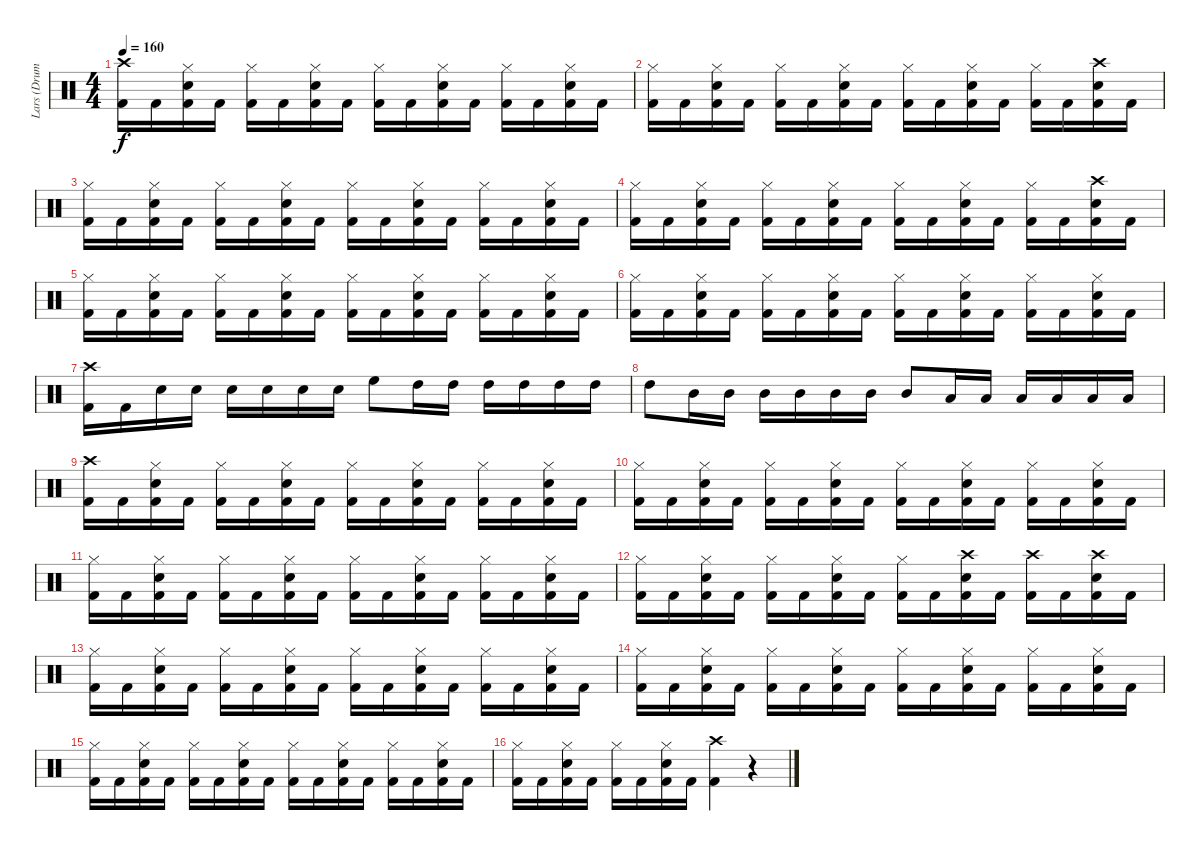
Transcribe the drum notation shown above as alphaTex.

\track ("Lars (Drums)" "Lars (Drum") {instrument percussion}
\staff {score}
\articulation defaults
\ts (4 4)
\tempo 160
\clef neutral
\ks c
("Crash high (hit)" "Kick (hit) 2").16{dy f} "Kick (hit) 2".16 ("Hi-Hat (closed)" "Kick (hit) 2" "Snare (hit) 2").16 "Kick (hit) 2".16 ("Hi-Hat (closed)" "Kick (hit) 2").16 "Kick (hit) 2".16 ("Hi-Hat (closed)" "Kick (hit) 2" "Snare (hit) 2").16 "Kick (hit) 2".16 ("Hi-Hat (closed)" "Kick (hit) 2").16 "Kick (hit) 2".16 ("Hi-Hat (closed)" "Kick (hit) 2" "Snare (hit) 2").16 "Kick (hit) 2".16 ("Hi-Hat (closed)" "Kick (hit) 2").16 "Kick (hit) 2".16 ("Hi-Hat (closed)" "Kick (hit) 2" "Snare (hit) 2").16 "Kick (hit) 2".16 |
("Hi-Hat (closed)" "Kick (hit) 2").16 "Kick (hit) 2".16 ("Hi-Hat (closed)" "Kick (hit) 2" "Snare (hit) 2").16 "Kick (hit) 2".16 ("Hi-Hat (closed)" "Kick (hit) 2").16 "Kick (hit) 2".16 ("Hi-Hat (closed)" "Kick (hit) 2" "Snare (hit) 2").16 "Kick (hit) 2".16 ("Hi-Hat (closed)" "Kick (hit) 2").16 "Kick (hit) 2".16 ("Hi-Hat (closed)" "Kick (hit) 2" "Snare (hit) 2").16 "Kick (hit) 2".16 ("Hi-Hat (closed)" "Kick (hit) 2").16 "Kick (hit) 2".16 ("Crash high (hit)" "Kick (hit) 2" "Snare (hit) 2").16 "Kick (hit) 2".16 |
("Hi-Hat (closed)" "Kick (hit) 2").16 "Kick (hit) 2".16 ("Hi-Hat (closed)" "Kick (hit) 2" "Snare (hit) 2").16 "Kick (hit) 2".16 ("Hi-Hat (closed)" "Kick (hit) 2").16 "Kick (hit) 2".16 ("Hi-Hat (closed)" "Kick (hit) 2" "Snare (hit) 2").16 "Kick (hit) 2".16 ("Hi-Hat (closed)" "Kick (hit) 2").16 "Kick (hit) 2".16 ("Hi-Hat (closed)" "Kick (hit) 2" "Snare (hit) 2").16 "Kick (hit) 2".16 ("Hi-Hat (closed)" "Kick (hit) 2").16 "Kick (hit) 2".16 ("Hi-Hat (closed)" "Kick (hit) 2" "Snare (hit) 2").16 "Kick (hit) 2".16 |
("Hi-Hat (closed)" "Kick (hit) 2").16 "Kick (hit) 2".16 ("Hi-Hat (closed)" "Kick (hit) 2" "Snare (hit) 2").16 "Kick (hit) 2".16 ("Hi-Hat (closed)" "Kick (hit) 2").16 "Kick (hit) 2".16 ("Hi-Hat (closed)" "Kick (hit) 2" "Snare (hit) 2").16 "Kick (hit) 2".16 ("Hi-Hat (closed)" "Kick (hit) 2").16 "Kick (hit) 2".16 ("Hi-Hat (closed)" "Kick (hit) 2" "Snare (hit) 2").16 "Kick (hit) 2".16 ("Hi-Hat (closed)" "Kick (hit) 2").16 "Kick (hit) 2".16 ("Crash high (hit)" "Kick (hit) 2" "Snare (hit) 2").16 "Kick (hit) 2".16 |
("Hi-Hat (closed)" "Kick (hit) 2").16 "Kick (hit) 2".16 ("Hi-Hat (closed)" "Kick (hit) 2" "Snare (hit) 2").16 "Kick (hit) 2".16 ("Hi-Hat (closed)" "Kick (hit) 2").16 "Kick (hit) 2".16 ("Hi-Hat (closed)" "Kick (hit) 2" "Snare (hit) 2").16 "Kick (hit) 2".16 ("Hi-Hat (closed)" "Kick (hit) 2").16 "Kick (hit) 2".16 ("Hi-Hat (closed)" "Kick (hit) 2" "Snare (hit) 2").16 "Kick (hit) 2".16 ("Hi-Hat (closed)" "Kick (hit) 2").16 "Kick (hit) 2".16 ("Hi-Hat (closed)" "Kick (hit) 2" "Snare (hit) 2").16 "Kick (hit) 2".16 |
("Hi-Hat (closed)" "Kick (hit) 2").16 "Kick (hit) 2".16 ("Hi-Hat (closed)" "Kick (hit) 2" "Snare (hit) 2").16 "Kick (hit) 2".16 ("Hi-Hat (closed)" "Kick (hit) 2").16 "Kick (hit) 2".16 ("Hi-Hat (closed)" "Kick (hit) 2" "Snare (hit) 2").16 "Kick (hit) 2".16 ("Hi-Hat (closed)" "Kick (hit) 2").16 "Kick (hit) 2".16 ("Hi-Hat (closed)" "Kick (hit) 2" "Snare (hit) 2").16 "Kick (hit) 2".16 ("Hi-Hat (closed)" "Kick (hit) 2").16 "Kick (hit) 2".16 ("Hi-Hat (closed)" "Kick (hit) 2" "Snare (hit) 2").16 "Kick (hit) 2".16 |
("Crash high (hit)" "Kick (hit) 2").16 "Kick (hit) 2".16 "Snare (hit) 2".16 "Snare (hit) 2".16 "Snare (hit) 2".16 "Snare (hit) 2".16 "Snare (hit) 2".16 "Snare (hit) 2".16 "High Floor Tom (hit)".8 "High Tom (hit)".16 "High Tom (hit)".16 "High Tom (hit)".16 "High Tom (hit)".16 "High Tom (hit)".16 "High Tom (hit)".16 |
"High Tom (hit)".8 "Mid Tom (hit)".16 "Mid Tom (hit)".16 "Mid Tom (hit)".16 "Mid Tom (hit)".16 "Mid Tom (hit)".16 "Mid Tom (hit)".16 "Mid Tom (hit)".8 "Low Tom (hit)".16 "Low Tom (hit)".16 "Low Tom (hit)".16 "Low Tom (hit)".16 "Low Tom (hit)".16 "Low Tom (hit)".16 |
("Crash high (hit)" "Kick (hit) 2").16 "Kick (hit) 2".16 ("Hi-Hat (closed)" "Kick (hit) 2" "Snare (hit) 2").16 "Kick (hit) 2".16 ("Hi-Hat (closed)" "Kick (hit) 2").16 "Kick (hit) 2".16 ("Hi-Hat (closed)" "Kick (hit) 2" "Snare (hit) 2").16 "Kick (hit) 2".16 ("Hi-Hat (closed)" "Kick (hit) 2").16 "Kick (hit) 2".16 ("Hi-Hat (closed)" "Kick (hit) 2" "Snare (hit) 2").16 "Kick (hit) 2".16 ("Hi-Hat (closed)" "Kick (hit) 2").16 "Kick (hit) 2".16 ("Hi-Hat (closed)" "Kick (hit) 2" "Snare (hit) 2").16 "Kick (hit) 2".16 |
("Hi-Hat (closed)" "Kick (hit) 2").16 "Kick (hit) 2".16 ("Hi-Hat (closed)" "Kick (hit) 2" "Snare (hit) 2").16 "Kick (hit) 2".16 ("Hi-Hat (closed)" "Kick (hit) 2").16 "Kick (hit) 2".16 ("Hi-Hat (closed)" "Kick (hit) 2" "Snare (hit) 2").16 "Kick (hit) 2".16 ("Hi-Hat (closed)" "Kick (hit) 2").16 "Kick (hit) 2".16 ("Hi-Hat (closed)" "Kick (hit) 2" "Snare (hit) 2").16 "Kick (hit) 2".16 ("Hi-Hat (closed)" "Kick (hit) 2").16 "Kick (hit) 2".16 ("Hi-Hat (closed)" "Kick (hit) 2" "Snare (hit) 2").16 "Kick (hit) 2".16 |
("Hi-Hat (closed)" "Kick (hit) 2").16 "Kick (hit) 2".16 ("Hi-Hat (closed)" "Kick (hit) 2" "Snare (hit) 2").16 "Kick (hit) 2".16 ("Hi-Hat (closed)" "Kick (hit) 2").16 "Kick (hit) 2".16 ("Hi-Hat (closed)" "Kick (hit) 2" "Snare (hit) 2").16 "Kick (hit) 2".16 ("Hi-Hat (closed)" "Kick (hit) 2").16 "Kick (hit) 2".16 ("Hi-Hat (closed)" "Kick (hit) 2" "Snare (hit) 2").16 "Kick (hit) 2".16 ("Hi-Hat (closed)" "Kick (hit) 2").16 "Kick (hit) 2".16 ("Hi-Hat (closed)" "Kick (hit) 2" "Snare (hit) 2").16 "Kick (hit) 2".16 |
("Hi-Hat (closed)" "Kick (hit) 2").16 "Kick (hit) 2".16 ("Hi-Hat (closed)" "Kick (hit) 2" "Snare (hit) 2").16 "Kick (hit) 2".16 ("Hi-Hat (closed)" "Kick (hit) 2").16 "Kick (hit) 2".16 ("Hi-Hat (closed)" "Kick (hit) 2" "Snare (hit) 2").16 "Kick (hit) 2".16 ("Hi-Hat (closed)" "Kick (hit) 2").16 "Kick (hit) 2".16 ("Crash high (hit)" "Kick (hit) 2" "Snare (hit) 2").16 "Kick (hit) 2".16 ("Crash high (hit)" "Kick (hit) 2").16 "Kick (hit) 2".16 ("Crash high (hit)" "Kick (hit) 2" "Snare (hit) 2").16 "Kick (hit) 2".16 |
("Hi-Hat (closed)" "Kick (hit) 2").16 "Kick (hit) 2".16 ("Hi-Hat (closed)" "Kick (hit) 2" "Snare (hit) 2").16 "Kick (hit) 2".16 ("Hi-Hat (closed)" "Kick (hit) 2").16 "Kick (hit) 2".16 ("Hi-Hat (closed)" "Kick (hit) 2" "Snare (hit) 2").16 "Kick (hit) 2".16 ("Hi-Hat (closed)" "Kick (hit) 2").16 "Kick (hit) 2".16 ("Hi-Hat (closed)" "Kick (hit) 2" "Snare (hit) 2").16 "Kick (hit) 2".16 ("Hi-Hat (closed)" "Kick (hit) 2").16 "Kick (hit) 2".16 ("Hi-Hat (closed)" "Kick (hit) 2" "Snare (hit) 2").16 "Kick (hit) 2".16 |
("Hi-Hat (closed)" "Kick (hit) 2").16 "Kick (hit) 2".16 ("Hi-Hat (closed)" "Kick (hit) 2" "Snare (hit) 2").16 "Kick (hit) 2".16 ("Hi-Hat (closed)" "Kick (hit) 2").16 "Kick (hit) 2".16 ("Hi-Hat (closed)" "Kick (hit) 2" "Snare (hit) 2").16 "Kick (hit) 2".16 ("Hi-Hat (closed)" "Kick (hit) 2").16 "Kick (hit) 2".16 ("Hi-Hat (closed)" "Kick (hit) 2" "Snare (hit) 2").16 "Kick (hit) 2".16 ("Hi-Hat (closed)" "Kick (hit) 2").16 "Kick (hit) 2".16 ("Hi-Hat (closed)" "Kick (hit) 2" "Snare (hit) 2").16 "Kick (hit) 2".16 |
("Hi-Hat (closed)" "Kick (hit) 2").16 "Kick (hit) 2".16 ("Hi-Hat (closed)" "Kick (hit) 2" "Snare (hit) 2").16 "Kick (hit) 2".16 ("Hi-Hat (closed)" "Kick (hit) 2").16 "Kick (hit) 2".16 ("Hi-Hat (closed)" "Kick (hit) 2" "Snare (hit) 2").16 "Kick (hit) 2".16 ("Hi-Hat (closed)" "Kick (hit) 2").16 "Kick (hit) 2".16 ("Hi-Hat (closed)" "Kick (hit) 2" "Snare (hit) 2").16 "Kick (hit) 2".16 ("Hi-Hat (closed)" "Kick (hit) 2").16 "Kick (hit) 2".16 ("Hi-Hat (closed)" "Kick (hit) 2" "Snare (hit) 2").16 "Kick (hit) 2".16 |
("Hi-Hat (closed)" "Kick (hit) 2").16 "Kick (hit) 2".16 ("Hi-Hat (closed)" "Kick (hit) 2" "Snare (hit) 2").16 "Kick (hit) 2".16 ("Hi-Hat (closed)" "Kick (hit) 2").16 "Kick (hit) 2".16 ("Hi-Hat (closed)" "Kick (hit) 2" "Snare (hit) 2").16 "Kick (hit) 2".16 ("Crash high (hit)" "Kick (hit) 2").4 r.4
